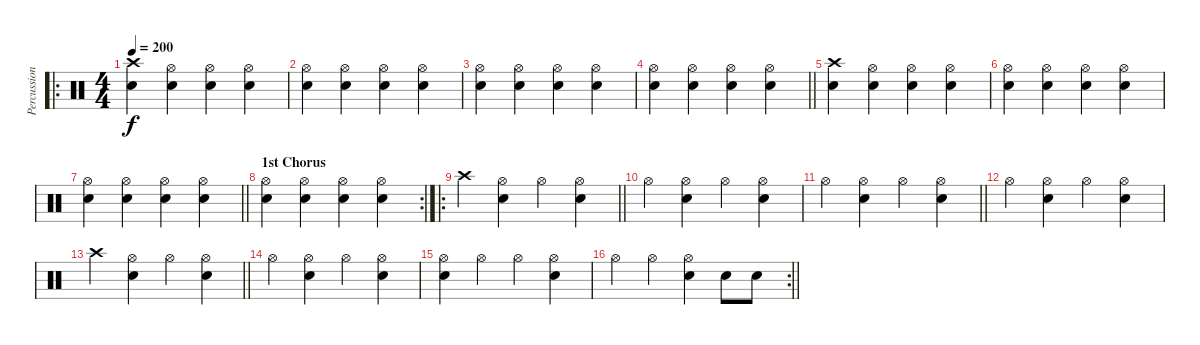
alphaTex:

\track ("Percussion" "Percussion") {instrument percussion}
\staff {score}
\articulation defaults
\ro
\ts (4 4)
\tempo 200
\clef neutral
\ks c
("Crash high (hit)" "Snare (hit) 2").4{dy f} ("Hi-Hat (open)" "Snare (hit) 2").4 ("Hi-Hat (open)" "Snare (hit) 2").4 ("Hi-Hat (open)" "Snare (hit) 2").4 |
("Hi-Hat (open)" "Snare (hit) 2").4 ("Hi-Hat (open)" "Snare (hit) 2").4 ("Hi-Hat (open)" "Snare (hit) 2").4 ("Hi-Hat (open)" "Snare (hit) 2").4 |
("Hi-Hat (open)" "Snare (hit) 2").4 ("Hi-Hat (open)" "Snare (hit) 2").4 ("Hi-Hat (open)" "Snare (hit) 2").4 ("Hi-Hat (open)" "Snare (hit) 2").4 |
\barLineRight lightlight
("Hi-Hat (open)" "Snare (hit) 2").4 ("Hi-Hat (open)" "Snare (hit) 2").4 ("Hi-Hat (open)" "Snare (hit) 2").4 ("Hi-Hat (open)" "Snare (hit) 2").4 |
("Crash high (hit)" "Snare (hit) 2").4 ("Hi-Hat (open)" "Snare (hit) 2").4 ("Hi-Hat (open)" "Snare (hit) 2").4 ("Hi-Hat (open)" "Snare (hit) 2").4 |
("Hi-Hat (open)" "Snare (hit) 2").4 ("Hi-Hat (open)" "Snare (hit) 2").4 ("Hi-Hat (open)" "Snare (hit) 2").4 ("Hi-Hat (open)" "Snare (hit) 2").4 |
\barLineRight lightlight
("Hi-Hat (open)" "Snare (hit) 2").4 ("Hi-Hat (open)" "Snare (hit) 2").4 ("Hi-Hat (open)" "Snare (hit) 2").4 ("Hi-Hat (open)" "Snare (hit) 2").4 |
\rc 2
\section ("" "1st Chorus")
("Hi-Hat (open)" "Snare (hit) 2").4 ("Hi-Hat (open)" "Snare (hit) 2").4 ("Hi-Hat (open)" "Snare (hit) 2").4 ("Hi-Hat (open)" "Snare (hit) 2").4 |
\ro
\barLineRight lightlight "Crash high (hit)".4
("Hi-Hat (open)" "Snare (hit) 2").4 "Hi-Hat (open)".4 ("Hi-Hat (open)" "Snare (hit) 2").4 |
\section ("" "")
"Hi-Hat (open)".4 ("Hi-Hat (open)" "Snare (hit) 2").4 "Hi-Hat (open)".4 ("Hi-Hat (open)" "Snare (hit) 2").4 |
\barLineRight lightlight "Hi-Hat (open)".4
("Hi-Hat (open)" "Snare (hit) 2").4 "Hi-Hat (open)".4 ("Hi-Hat (open)" "Snare (hit) 2").4 |
"Hi-Hat (open)".4 ("Hi-Hat (open)" "Snare (hit) 2").4 "Hi-Hat (open)".4 ("Hi-Hat (open)" "Snare (hit) 2").4 |
\barLineRight lightlight "Crash high (hit)".4
("Hi-Hat (open)" "Snare (hit) 2").4 "Hi-Hat (open)".4 ("Hi-Hat (open)" "Snare (hit) 2").4 |
"Hi-Hat (open)".4 ("Hi-Hat (open)" "Snare (hit) 2").4 "Hi-Hat (open)".4 ("Hi-Hat (open)" "Snare (hit) 2").4 |
("Hi-Hat (open)" "Snare (hit) 2").4 "Hi-Hat (open)".4 "Hi-Hat (open)".4 ("Hi-Hat (open)" "Snare (hit) 2").4 |
\rc 2
\barLineRight lightlight "Hi-Hat (open)".4 "Hi-Hat (open)".4
("Hi-Hat (open)" "Snare (hit) 2").4 "Snare (hit) 2".8 "Snare (hit) 2".8
